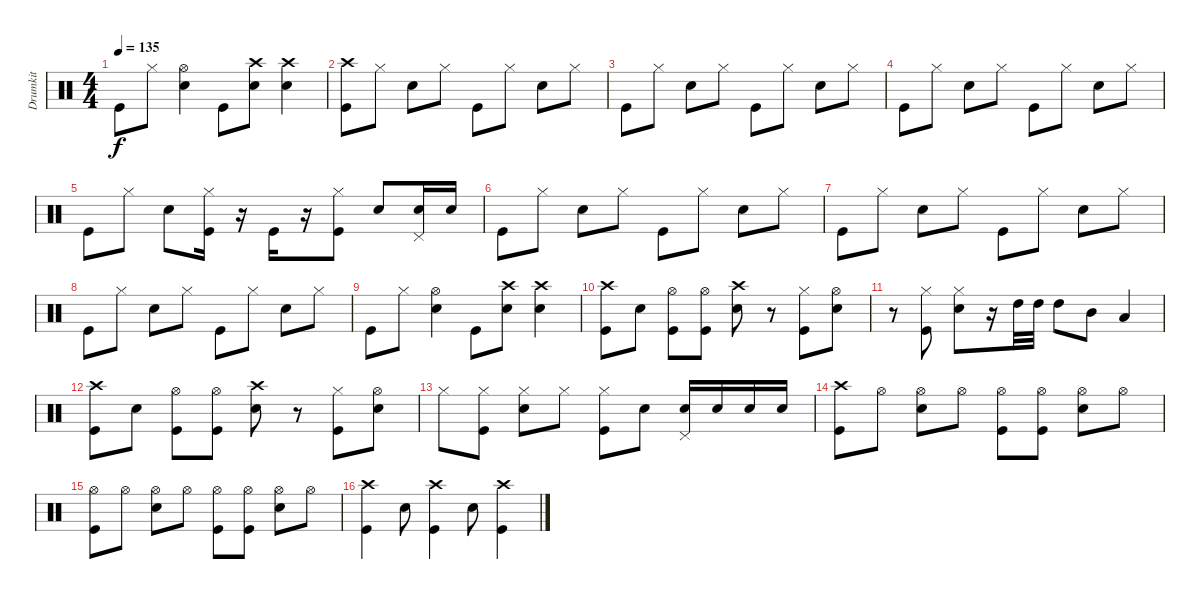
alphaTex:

\track ("Drumkit" "Drumkit") {instrument percussion}
\staff {score}
\articulation defaults
\ts (4 4)
\tempo 135
\clef neutral
\ks c "Kick (hit)".8{dy f} "Hi-Hat (closed)".8
("Hi-Hat (open)" "Snare (hit) 2").4 "Kick (hit)".8 ("Crash high (hit)" "Snare (hit) 2").8 ("Crash high (hit)" "Snare (hit) 2").4 |
("Crash high (hit)" "Kick (hit)").8 "Hi-Hat (closed)".8 "Snare (hit) 2".8 "Hi-Hat (closed)".8 "Kick (hit)".8 "Hi-Hat (closed)".8 "Snare (hit) 2".8 "Hi-Hat (closed)".8 |
"Kick (hit)".8 "Hi-Hat (closed)".8 "Snare (hit) 2".8 "Hi-Hat (closed)".8 "Kick (hit)".8 "Hi-Hat (closed)".8 "Snare (hit) 2".8 "Hi-Hat (closed)".8 |
"Kick (hit)".8 "Hi-Hat (closed)".8 "Snare (hit) 2".8 "Hi-Hat (closed)".8 "Kick (hit)".8 "Hi-Hat (closed)".8 "Snare (hit) 2".8 "Hi-Hat (closed)".8 |
"Kick (hit)".8 "Hi-Hat (closed)".8 "Snare (hit) 2".8 ("Kick (hit)" "Hi-Hat (closed)").16 r.16 "Kick (hit)".16 r.16 ("Kick (hit)" "Hi-Hat (closed)").8 "Snare (hit) 2".8 ("Pedal Hi-Hat (hit)" "Snare (hit) 2").16 "Snare (hit) 2".16 |
"Kick (hit)".8 "Hi-Hat (closed)".8 "Snare (hit) 2".8 "Hi-Hat (closed)".8 "Kick (hit)".8 "Hi-Hat (closed)".8 "Snare (hit) 2".8 "Hi-Hat (closed)".8 |
"Kick (hit)".8 "Hi-Hat (closed)".8 "Snare (hit) 2".8 "Hi-Hat (closed)".8 "Kick (hit)".8 "Hi-Hat (closed)".8 "Snare (hit) 2".8 "Hi-Hat (closed)".8 |
"Kick (hit)".8 "Hi-Hat (closed)".8 "Snare (hit) 2".8 "Hi-Hat (closed)".8 "Kick (hit)".8 "Hi-Hat (closed)".8 "Snare (hit) 2".8 "Hi-Hat (closed)".8 |
"Kick (hit)".8 "Hi-Hat (closed)".8 ("Hi-Hat (open)" "Snare (hit) 2").4 "Kick (hit)".8 ("Crash high (hit)" "Snare (hit) 2").8 ("Crash high (hit)" "Snare (hit) 2").4 |
("Kick (hit)" "Crash high (hit)").8 "Snare (hit) 2".8 ("Hi-Hat (open)" "Kick (hit)").8 ("Hi-Hat (open)" "Kick (hit)").8 ("Crash high (hit)" "Snare (hit) 2").8 r.8 ("Hi-Hat (closed)" "Kick (hit)").8 ("Hi-Hat (open)" "Snare (hit) 2").8 |
r.8 ("Hi-Hat (closed)" "Kick (hit)").8 ("Hi-Hat (closed)" "Snare (hit) 2").8 r.16 "High Tom (hit)".32 "High Tom (hit)".32 "High Tom (hit)".8 "Mid Tom (hit)".8 "Low Tom (hit)".4 |
("Kick (hit)" "Crash high (hit)").8 "Snare (hit) 2".8 ("Hi-Hat (open)" "Kick (hit)").8 ("Hi-Hat (open)" "Kick (hit)").8 ("Crash high (hit)" "Snare (hit) 2").8 r.8 ("Hi-Hat (closed)" "Kick (hit)").8 ("Hi-Hat (open)" "Snare (hit) 2").8 |
"Hi-Hat (closed)".8 ("Hi-Hat (closed)" "Kick (hit)").8 ("Hi-Hat (closed)" "Snare (hit) 2").8 "Hi-Hat (closed)".8 ("Hi-Hat (closed)" "Kick (hit)").8 "Snare (hit) 2".8 ("Pedal Hi-Hat (hit)" "Snare (hit) 2").16 "Snare (hit) 2".16 "Snare (hit) 2".16 "Snare (hit) 2".16 |
("Kick (hit)" "Crash high (hit)").8 "Hi-Hat (open)".8 ("Snare (hit) 2" "Hi-Hat (open)").8 "Hi-Hat (open)".8 ("Hi-Hat (open)" "Kick (hit)").8 ("Kick (hit)" "Hi-Hat (open)").8 ("Hi-Hat (open)" "Snare (hit) 2").8 "Hi-Hat (open)".8 |
("Hi-Hat (open)" "Kick (hit)").8 "Hi-Hat (open)".8 ("Hi-Hat (open)" "Snare (hit) 2").8 "Hi-Hat (open)".8 ("Kick (hit)" "Hi-Hat (open)").8 ("Kick (hit)" "Hi-Hat (open)").8 ("Snare (hit) 2" "Hi-Hat (open)").8 "Hi-Hat (open)".8 |
("Crash high (hit)" "Kick (hit)").4 "Snare (hit) 2".8 ("Kick (hit)" "Crash high (hit)").4 "Snare (hit) 2".8 ("Crash high (hit)" "Kick (hit)").4
